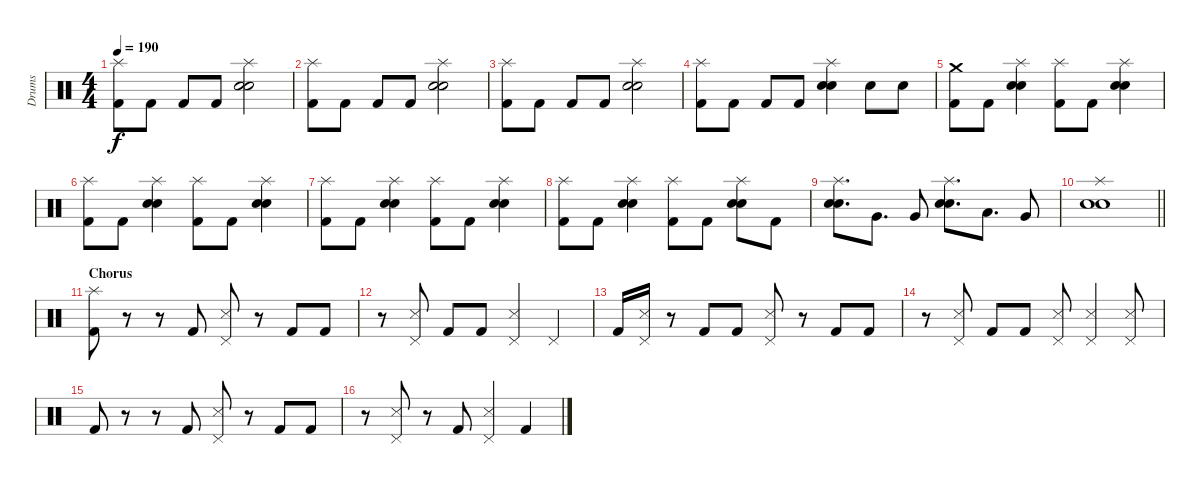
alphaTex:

\track ("Drums" "Drums") {instrument percussion}
\staff
\articulation defaults
\ts (4 4)
\tempo 190
\clef neutral
\ks c
("Splash (hit)" "Kick (hit) 2").8{dy f} "Kick (hit) 2".8 "Kick (hit) 2".8 "Kick (hit) 2".8 ("Splash (hit)" "Electric Snare (hit)" "Snare (hit) 2").2 |
("Splash (hit)" "Kick (hit) 2").8 "Kick (hit) 2".8 "Kick (hit) 2".8 "Kick (hit) 2".8 ("Splash (hit)" "Electric Snare (hit)" "Snare (hit) 2").2 |
("Splash (hit)" "Kick (hit) 2").8 "Kick (hit) 2".8 "Kick (hit) 2".8 "Kick (hit) 2".8 ("Splash (hit)" "Electric Snare (hit)" "Snare (hit) 2").2 |
("Splash (hit)" "Kick (hit) 2").8 "Kick (hit) 2".8 "Kick (hit) 2".8 "Kick (hit) 2".8 ("Splash (hit)" "Electric Snare (hit)" "Snare (hit) 2").4 "Electric Snare (hit)".8 "Electric Snare (hit)".8 |
("Crash medium (hit)" "Kick (hit) 2").8 "Kick (hit) 2".8 ("Splash (hit)" "Electric Snare (hit)" "Snare (hit) 2").4 ("Splash (hit)" "Kick (hit) 2").8 "Kick (hit) 2".8 ("Splash (hit)" "Electric Snare (hit)" "Snare (hit) 2").4 |
("Splash (hit)" "Kick (hit) 2").8 "Kick (hit) 2".8 ("Splash (hit)" "Electric Snare (hit)" "Snare (hit) 2").4 ("Splash (hit)" "Kick (hit) 2").8 "Kick (hit) 2".8 ("Splash (hit)" "Electric Snare (hit)" "Snare (hit) 2").4 |
("Splash (hit)" "Kick (hit) 2").8 "Kick (hit) 2".8 ("Splash (hit)" "Electric Snare (hit)" "Snare (hit) 2").4 ("Splash (hit)" "Kick (hit) 2").8 "Kick (hit) 2".8 ("Splash (hit)" "Electric Snare (hit)" "Snare (hit) 2").4 |
("Splash (hit)" "Kick (hit) 2").8 "Kick (hit) 2".8 ("Splash (hit)" "Electric Snare (hit)" "Snare (hit) 2").4 ("Splash (hit)" "Kick (hit) 2").8 "Kick (hit) 2".8 ("Splash (hit)" "Electric Snare (hit)" "Snare (hit) 2").8 "Kick (hit) 2".8 |
("Splash (hit)" "Electric Snare (hit)" "Snare (hit) 2").8{d} "Very Low Tom (hit)".8{d} "Very Low Tom (hit)".8 ("Splash (hit)" "Electric Snare (hit)" "Snare (hit) 2").8{d} "Low Tom (hit)".8{d} "Very Low Tom (hit)".8 |
\barLineRight lightlight
("Splash (hit)" "Electric Snare (hit)" "Snare (hit) 2").1 |
\section ("" "Chorus")
("Splash (hit)" "Kick (hit) 2").8 r.8 r.8 "Kick (hit) 2".8 ("Pedal Hi-Hat (hit)" "Snare (side stick) 3").8 r.8 "Kick (hit) 2".8 "Kick (hit) 2".8 |
r.8 ("Pedal Hi-Hat (hit)" "Snare (side stick) 3").8 "Kick (hit) 2".8 "Kick (hit) 2".8 ("Pedal Hi-Hat (hit)" "Snare (side stick) 3").4 "Pedal Hi-Hat (hit)".4 |
"Kick (hit) 2".16 ("Pedal Hi-Hat (hit)" "Snare (side stick) 3").16 r.8 "Kick (hit) 2".8 "Kick (hit) 2".8 ("Pedal Hi-Hat (hit)" "Snare (side stick) 3").8 r.8 "Kick (hit) 2".8 "Kick (hit) 2".8 |
r.8 ("Pedal Hi-Hat (hit)" "Snare (side stick) 3").8 "Kick (hit) 2".8 "Kick (hit) 2".8 ("Pedal Hi-Hat (hit)" "Snare (side stick) 3").8 ("Pedal Hi-Hat (hit)" "Snare (side stick) 3").4 ("Pedal Hi-Hat (hit)" "Snare (side stick) 3").8 |
"Kick (hit) 2".8 r.8 r.8 "Kick (hit) 2".8 ("Pedal Hi-Hat (hit)" "Snare (side stick) 3").8 r.8 "Kick (hit) 2".8 "Kick (hit) 2".8 |
r.8 ("Pedal Hi-Hat (hit)" "Snare (side stick) 3").8 r.8 "Kick (hit) 2".8 ("Pedal Hi-Hat (hit)" "Snare (side stick) 3").4 "Kick (hit) 2".4
